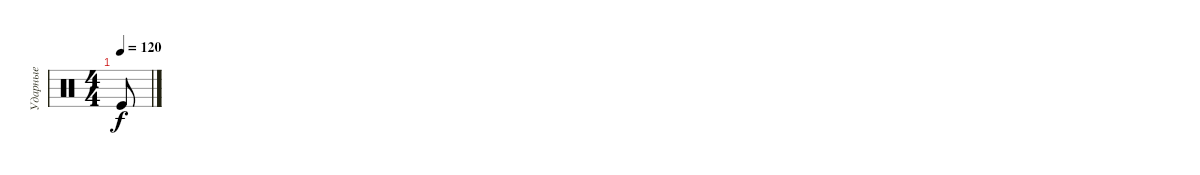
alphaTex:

\track ("Ударные" "Ударные") {instrument percussion}
\staff {score}
\articulation defaults
\ts (4 4)
\tempo 120
\clef neutral
\ks c "Kick (hit)".8{dy f}
